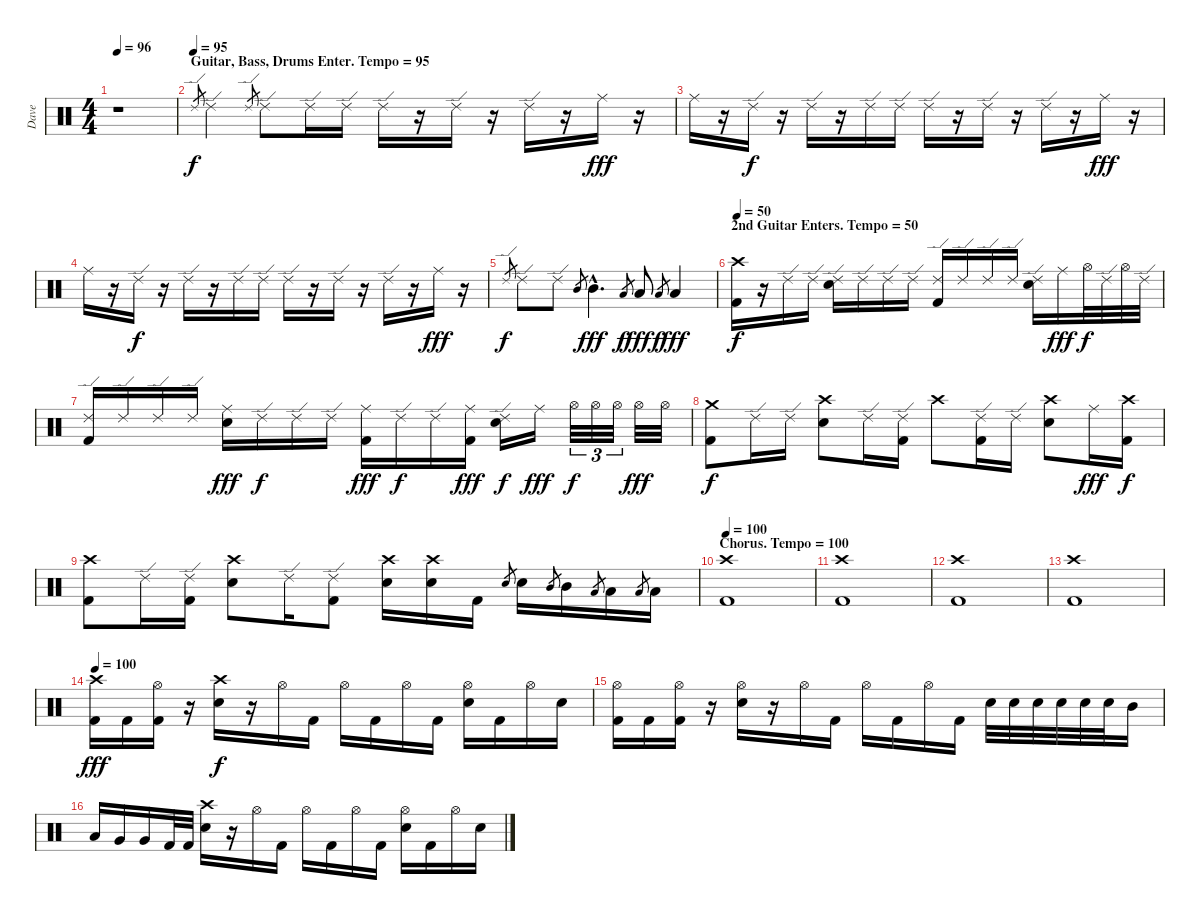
\track ("Dave" "Dave") {instrument percussion}
\staff {score}
\articulation defaults
\ts (4 4)
\tempo 96
\clef neutral
\ks c
r.1{dy f} |
\section ("" "Guitar, Bass, Drums Enter. Tempo = 95")
\tempo (95)
"Ride (edge) 2".8{gr} "Ride (edge) 2".4 "Ride (edge) 2".8{gr} "Ride (edge) 2".8 "Ride (edge) 2".16 "Ride (edge) 2".16 "Ride (edge) 2".16 r.16 "Ride (edge) 2".16 r.16 "Ride (edge) 2".16 r.16 "Ride (middle)".16{dy fff} r.16 |
"Ride (middle)".16 r.16 "Ride (edge) 2".16{dy f} r.16 "Ride (edge) 2".16 r.16 "Ride (edge) 2".16 "Ride (edge) 2".16 "Ride (edge) 2".16 r.16 "Ride (edge) 2".16 r.16 "Ride (edge) 2".16 r.16 "Ride (middle)".16{dy fff} r.16 |
"Ride (middle)".16 r.16 "Ride (edge) 2".16{dy f} r.16 "Ride (edge) 2".16 r.16 "Ride (edge) 2".16 "Ride (edge) 2".16 "Ride (edge) 2".16 r.16 "Ride (edge) 2".16 r.16 "Ride (edge) 2".16 r.16 "Ride (middle)".16{dy fff} r.16 |
"Ride (edge) 2".8{gr dy f} "Ride (edge) 2".8 "Ride (edge) 2".8 "Mid Tom (hit)".8{gr} "Mid Tom (hit)"{hac}.4{d dy fff} "Low Tom (hit)".8{gr dy f} "Low Tom (hit)".8{dy fff} "Low Floor Tom (hit)".8{gr dy f} "Low Floor Tom (hit)".4{dy fff} |
\section ("" "2nd Guitar Enters. Tempo = 50")
\tempo 50
("Crash high (hit)" "Kick (hit) 2").16{dy f} r.16 "Ride (edge) 2".16 "Ride (edge) 2".16 ("Ride (edge) 2" "Electric Snare (hit)").16 "Ride (edge) 2".16 "Ride (edge) 2".16 "Ride (edge) 2".16 ("Ride (edge) 2" "Kick (hit) 2").16 "Ride (edge) 2".16 "Ride (edge) 2".16 "Ride (edge) 2".16 ("Ride (edge) 2" "Electric Snare (hit)").16 "Ride (middle)".16{dy fff} "Hi-Hat (open)".32{dy f} "Ride (edge) 2".32 "Hi-Hat (open)".32 "Ride (edge) 2".32 |
("Ride (edge) 2" "Kick (hit) 2").16 "Ride (edge) 2".16 "Ride (edge) 2".16 "Ride (edge) 2".16 ("Ride (middle)" "Electric Snare (hit)").16{dy fff} "Ride (edge) 2".16{dy f} "Ride (edge) 2".16 "Ride (edge) 2".16 ("Ride (middle)" "Kick (hit) 2").16{dy fff} "Ride (edge) 2".16{dy f} "Ride (edge) 2".16 ("Ride (middle)" "Kick (hit) 2").16{dy fff} ("Ride (edge) 2" "Electric Snare (hit)").16{dy f} "Ride (middle)".16{dy fff} "Hi-Hat (open)".32{tu (3 2) dy f} "Hi-Hat (open)".32{tu (3 2)} "Hi-Hat (open)".32{tu (3 2)} "Hi-Hat (open)".32{dy fff} "Hi-Hat (open)".32 |
("Crash medium (hit)" "Kick (hit) 2").8{dy f} "Ride (edge) 2".16 "Ride (edge) 2".16 ("Crash high (hit)" "Electric Snare (hit)").8 "Ride (edge) 2".16 ("Ride (edge) 2" "Kick (hit) 2").16 "Crash high (hit)".8 ("Ride (edge) 2" "Kick (hit) 2").16 "Ride (edge) 2".16 ("Crash high (hit)" "Electric Snare (hit)").8 "Ride (middle)".16{dy fff} ("Crash high (hit)" "Kick (hit) 2").16{dy f} |
("Crash high (hit)" "Kick (hit) 2").8 "Ride (edge) 2".16 ("Ride (edge) 2" "Kick (hit) 2").16 ("Crash high (hit)" "Electric Snare (hit)").8 "Ride (edge) 2".16 ("Ride (edge) 2" "Kick (hit) 2").8 ("Crash high (hit)" "Electric Snare (hit)").16 ("Crash high (hit)" "Electric Snare (hit)").16 "Kick (hit) 2".16 "Electric Snare (hit)".8{gr} "Electric Snare (hit)".16 "Mid Tom (hit)".8{gr} "Mid Tom (hit)".16 "Low Tom (hit)".8{gr} "Low Tom (hit)".16 "Low Floor Tom (hit)".8{gr} "Low Floor Tom (hit)".16 |
\section ("" "Chorus. Tempo = 100")
\tempo 100
("Crash high (hit)" "Kick (hit) 2").1 |
("Crash high (hit)" "Kick (hit) 2").1 |
("Crash high (hit)" "Kick (hit) 2").1 |
("Crash high (hit)" "Kick (hit) 2").1 |
\tempo 100
("Crash high (hit)" "Kick (hit) 2").16{dy fff} "Kick (hit) 2".16 ("Hi-Hat (open)" "Kick (hit) 2").16 r.16 ("Crash high (hit)" "Electric Snare (hit)").16{dy f} r.16 "Hi-Hat (open)".16 "Kick (hit) 2".16 "Hi-Hat (open)".16 "Kick (hit) 2".16 "Hi-Hat (open)".16 "Kick (hit) 2".16 ("Hi-Hat (open)" "Electric Snare (hit)").16 "Kick (hit) 2".16 "Hi-Hat (open)".16 "Electric Snare (hit)".16 |
("Hi-Hat (open)" "Kick (hit) 2").16 "Kick (hit) 2".16 ("Hi-Hat (open)" "Kick (hit) 2").16 r.16 ("Hi-Hat (open)" "Electric Snare (hit)").16 r.16 "Hi-Hat (open)".16 "Kick (hit) 2".16 "Hi-Hat (open)".16 "Kick (hit) 2".16 "Hi-Hat (open)".16 "Kick (hit) 2".16 "Electric Snare (hit)".32 "Electric Snare (hit)".32 "Electric Snare (hit)".32 "Electric Snare (hit)".32 "Electric Snare (hit)".32 "Electric Snare (hit)".32 "Mid Tom (hit)".16 |
"Low Tom (hit)".16 "Very Low Tom (hit)".16 "Very Low Tom (hit)".16 "Kick (hit) 2".32 "Kick (hit) 2".32 ("Crash high (hit)" "Electric Snare (hit)").16 r.16 "Hi-Hat (open)".16 "Kick (hit) 2".16 "Hi-Hat (open)".16 "Kick (hit) 2".16 "Hi-Hat (open)".16 "Kick (hit) 2".16 ("Hi-Hat (open)" "Electric Snare (hit)").16 "Kick (hit) 2".16 "Hi-Hat (open)".16 "Electric Snare (hit)".16
